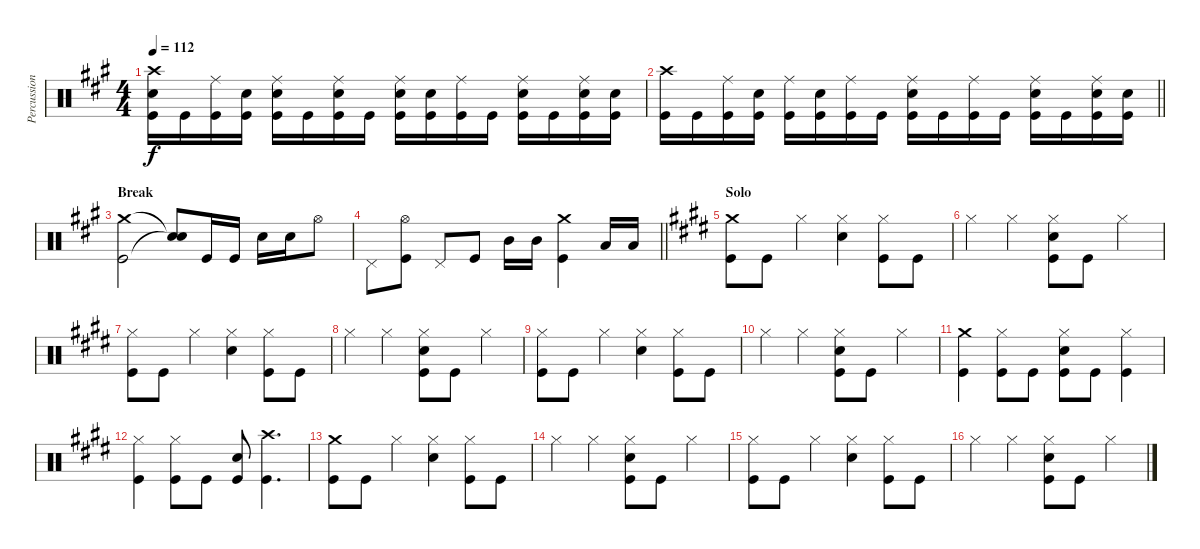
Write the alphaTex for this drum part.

\track ("Percussion" "Percussion") {instrument percussion}
\staff {score}
\articulation defaults
\ts (4 4)
\tempo 112
\clef neutral
\ks a
("Crash high (hit)" "Electric Snare (hit)" "Kick (hit)").16{dy f} "Kick (hit)".16 ("Ride (middle)" "Kick (hit)").16 ("Electric Snare (hit)" "Kick (hit)").16 ("Ride (middle)" "Electric Snare (hit)" "Kick (hit)").16 "Kick (hit)".16 ("Ride (middle)" "Electric Snare (hit)" "Kick (hit)").16 "Kick (hit)".16 ("Ride (middle)" "Electric Snare (hit)" "Kick (hit)").16 ("Electric Snare (hit)" "Kick (hit)").16 ("Ride (middle)" "Kick (hit)").16 "Kick (hit)".16 ("Ride (middle)" "Electric Snare (hit)" "Kick (hit)").16 "Kick (hit)".16 ("Ride (middle)" "Electric Snare (hit)" "Kick (hit)").16 ("Electric Snare (hit)" "Kick (hit)").16 |
\barLineRight lightlight
("Crash high (hit)" "Kick (hit)").16 "Kick (hit)".16 ("Ride (middle)" "Kick (hit)").16 ("Electric Snare (hit)" "Kick (hit)").16 ("Ride (middle)" "Kick (hit)").16 ("Electric Snare (hit)" "Kick (hit)").16 ("Ride (middle)" "Kick (hit)").16 "Kick (hit)".16 ("Ride (middle)" "Electric Snare (hit)" "Kick (hit)").16 "Kick (hit)".16 ("Ride (middle)" "Kick (hit)").16 "Kick (hit)".16 ("Ride (middle)" "Electric Snare (hit)" "Kick (hit)").16 "Kick (hit)".16 ("Ride (middle)" "Electric Snare (hit)" "Kick (hit)").16 ("Electric Snare (hit)" "Kick (hit)").16 |
\section ("" "Break")
("Crash medium (hit)" "Kick (hit)").2 ("Snare (hit)"{t} "Snare (hit)"{t}).8 "Kick (hit)".16 "Kick (hit)".16 "Electric Snare (hit)".16 "Electric Snare (hit)".16 "Hi-Hat (open)".8 |
\barLineRight lightlight "Pedal Hi-Hat (hit)".8
("Hi-Hat (open)" "Kick (hit)").8 "Pedal Hi-Hat (hit)".8 "Kick (hit)".8 "Mid Tom (hit)".16 "Mid Tom (hit)".16 ("Crash medium (hit)" "Kick (hit)").4 "Low Tom (hit)".16 "Low Tom (hit)".16 |
\section ("" "Solo")
\ks e
("Crash medium (hit)" "Kick (hit)").8 "Kick (hit)".8 "Hi-Hat (closed)".4 ("Hi-Hat (closed)" "Electric Snare (hit)").4 ("Hi-Hat (closed)" "Kick (hit)").8 "Kick (hit)".8 |
"Hi-Hat (closed)".4 "Hi-Hat (closed)".4 ("Hi-Hat (closed)" "Electric Snare (hit)" "Kick (hit)").8 "Kick (hit)".8 "Hi-Hat (closed)".4 |
("Hi-Hat (closed)" "Kick (hit)").8 "Kick (hit)".8 "Hi-Hat (closed)".4 ("Hi-Hat (closed)" "Electric Snare (hit)").4 ("Hi-Hat (closed)" "Kick (hit)").8 "Kick (hit)".8 |
"Hi-Hat (closed)".4 "Hi-Hat (closed)".4 ("Hi-Hat (closed)" "Electric Snare (hit)" "Kick (hit)").8 "Kick (hit)".8 "Hi-Hat (closed)".4 |
("Hi-Hat (closed)" "Kick (hit)").8 "Kick (hit)".8 "Hi-Hat (closed)".4 ("Hi-Hat (closed)" "Electric Snare (hit)").4 ("Hi-Hat (closed)" "Kick (hit)").8 "Kick (hit)".8 |
"Hi-Hat (closed)".4 "Hi-Hat (closed)".4 ("Hi-Hat (closed)" "Electric Snare (hit)" "Kick (hit)").8 "Kick (hit)".8 "Hi-Hat (closed)".4 |
("Crash medium (hit)" "Kick (hit)").4 ("Hi-Hat (closed)" "Kick (hit)").8 "Kick (hit)".8 ("Hi-Hat (closed)" "Electric Snare (hit)" "Kick (hit)").8 "Kick (hit)".8 ("Hi-Hat (closed)" "Kick (hit)").4 |
("Hi-Hat (closed)" "Kick (hit)").4 ("Hi-Hat (closed)" "Kick (hit)").8 "Kick (hit)".8 ("Electric Snare (hit)" "Kick (hit)").8 ("Crash high (hit)" "Kick (hit)").4{d} |
("Crash medium (hit)" "Kick (hit)").8 "Kick (hit)".8 "Hi-Hat (closed)".4 ("Hi-Hat (closed)" "Electric Snare (hit)").4 ("Hi-Hat (closed)" "Kick (hit)").8 "Kick (hit)".8 |
"Hi-Hat (closed)".4 "Hi-Hat (closed)".4 ("Hi-Hat (closed)" "Electric Snare (hit)" "Kick (hit)").8 "Kick (hit)".8 "Hi-Hat (closed)".4 |
("Hi-Hat (closed)" "Kick (hit)").8 "Kick (hit)".8 "Hi-Hat (closed)".4 ("Hi-Hat (closed)" "Electric Snare (hit)").4 ("Hi-Hat (closed)" "Kick (hit)").8 "Kick (hit)".8 |
"Hi-Hat (closed)".4 "Hi-Hat (closed)".4 ("Hi-Hat (closed)" "Electric Snare (hit)" "Kick (hit)").8 "Kick (hit)".8 "Hi-Hat (closed)".4
